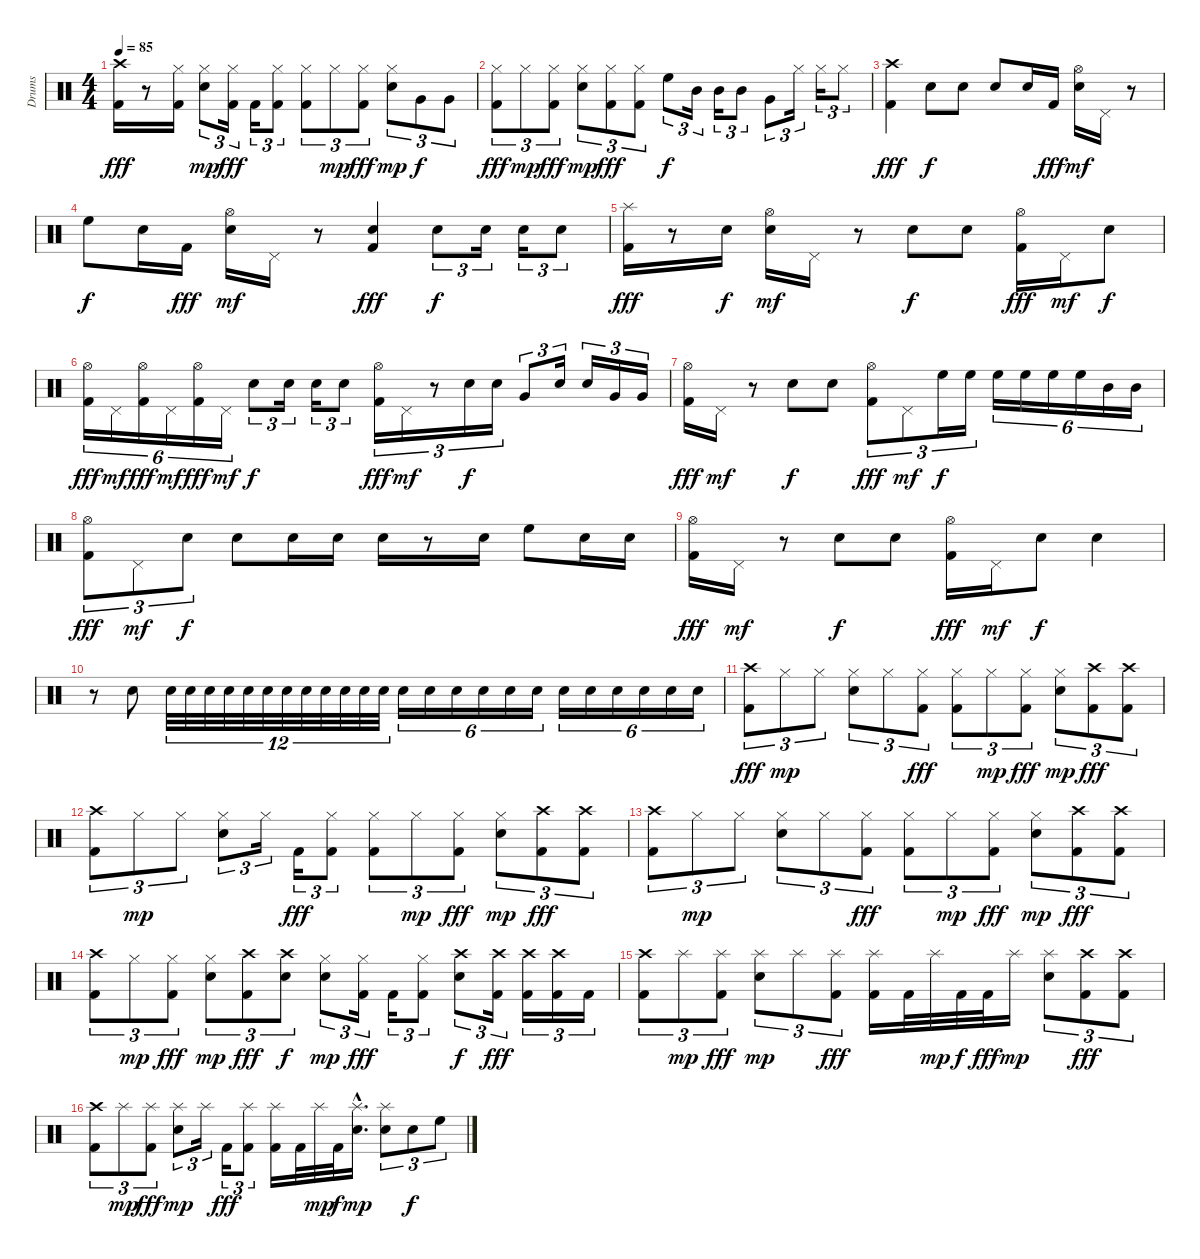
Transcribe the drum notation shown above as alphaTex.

\track ("Drums" "Drums") {instrument percussion}
\staff {score}
\articulation defaults
\ts (4 4)
\tempo 85
\clef neutral
\ks c
("Crash high (hit)" "Kick (hit) 2").16{dy fff} r.8 ("Hi-Hat (closed)" "Kick (hit) 2").16 ("Snare (hit) 2" "Hi-Hat (closed)").8{tu (3 2) dy mp} ("Hi-Hat (closed)" "Kick (hit) 2").16{tu (3 2) dy fff} "Kick (hit) 2".16{tu (3 2)} ("Hi-Hat (closed)" "Kick (hit) 2").8{tu (3 2)} ("Hi-Hat (closed)" "Kick (hit) 2").8{tu (3 2)} "Hi-Hat (closed)".8{tu (3 2) dy mp} ("Hi-Hat (closed)" "Kick (hit) 2").8{tu (3 2) dy fff} ("Snare (hit) 2" "Hi-Hat (closed)").8{tu (3 2) dy mp} "Very Low Tom (hit)".8{tu (3 2) dy f} "Very Low Tom (hit)".8{tu (3 2)} |
("Hi-Hat (closed)" "Kick (hit) 2").8{tu (3 2) dy fff} "Hi-Hat (closed)".8{tu (3 2) dy mp} ("Hi-Hat (closed)" "Kick (hit) 2").8{tu (3 2) dy fff} ("Snare (hit) 2" "Hi-Hat (closed)").8{tu (3 2) dy mp} ("Hi-Hat (closed)" "Kick (hit) 2").8{tu (3 2) dy fff} ("Hi-Hat (closed)" "Kick (hit) 2").8{tu (3 2)} "High Floor Tom (hit)".8{tu (3 2) dy f} "Mid Tom (hit)".16{tu (3 2)} "Mid Tom (hit)".16{tu (3 2)} "Mid Tom (hit)".8{tu (3 2)} "Very Low Tom (hit)".8{tu (3 2)} "Hi-Hat (closed)".16{tu (3 2)} "Hi-Hat (closed)".16{tu (3 2)} "Hi-Hat (closed)".8{tu (3 2)} |
("Crash high (hit)" "Kick (hit) 2").4{dy fff} "Snare (hit) 2".8{dy f} "Snare (hit) 2".8 "Snare (hit) 2".8 "Snare (hit) 2".16 "Kick (hit) 2".16{dy fff} ("Hi-Hat (open)" "Snare (hit) 2").16{dy mf} "Pedal Hi-Hat (hit)".16 r.8 |
"High Floor Tom (hit)".8{dy f} "Snare (hit) 2".16 "Kick (hit) 2".16{dy fff} ("Hi-Hat (open)" "Snare (hit) 2").16{dy mf} "Pedal Hi-Hat (hit)".16 r.8 ("Snare (hit) 2" "Kick (hit) 2").4{dy fff} "Snare (hit) 2".8{tu (3 2) dy f} "Snare (hit) 2".16{tu (3 2)} "Snare (hit) 2".16{tu (3 2)} "Snare (hit) 2".8{tu (3 2)} |
("Splash (hit)" "Kick (hit) 2").16{dy fff} r.8 "Snare (hit) 2".16{dy f} ("Hi-Hat (open)" "Snare (hit) 2").16{dy mf} "Pedal Hi-Hat (hit)".16 r.8 "Snare (hit) 2".8{dy f} "Snare (hit) 2".8 ("Hi-Hat (open)" "Kick (hit) 2").16{dy fff} "Pedal Hi-Hat (hit)".16{dy mf} "Snare (hit) 2".8{dy f} |
("Hi-Hat (open)" "Kick (hit) 2").16{tu (6 4) dy fff} "Pedal Hi-Hat (hit)".16{tu (6 4) dy mf} ("Hi-Hat (open)" "Kick (hit) 2").16{tu (6 4) dy fff} "Pedal Hi-Hat (hit)".16{tu (6 4) dy mf} ("Hi-Hat (open)" "Kick (hit) 2").16{tu (6 4) dy fff} "Pedal Hi-Hat (hit)".16{tu (6 4) dy mf} "Snare (hit) 2".8{tu (3 2) dy f} "Snare (hit) 2".16{tu (3 2)} "Snare (hit) 2".16{tu (3 2)} "Snare (hit) 2".8{tu (3 2)} ("Hi-Hat (open)" "Kick (hit) 2").16{tu (3 2) dy fff} "Pedal Hi-Hat (hit)".16{tu (3 2) dy mf} r.8{tu (3 2)} "Snare (hit) 2".16{tu (3 2) dy f} "Snare (hit) 2".16{tu (3 2)} "Very Low Tom (hit)".8{tu (3 2)} "Snare (hit) 2".16{tu (3 2)} "Snare (hit) 2".16{tu (3 2)} "Very Low Tom (hit)".16{tu (3 2)} "Very Low Tom (hit)".16{tu (3 2)} |
("Hi-Hat (open)" "Kick (hit) 2").16{dy fff} "Pedal Hi-Hat (hit)".16{dy mf} r.8 "Snare (hit) 2".8{dy f} "Snare (hit) 2".8 ("Hi-Hat (open)" "Kick (hit) 2").8{tu (3 2) dy fff} "Pedal Hi-Hat (hit)".8{tu (3 2) dy mf} "High Floor Tom (hit)".16{tu (3 2) dy f} "High Floor Tom (hit)".16{tu (3 2)} "High Floor Tom (hit)".16{tu (6 4)} "High Floor Tom (hit)".16{tu (6 4)} "High Floor Tom (hit)".16{tu (6 4)} "High Floor Tom (hit)".16{tu (6 4)} "Mid Tom (hit)".16{tu (6 4)} "Mid Tom (hit)".16{tu (6 4)} |
("Hi-Hat (open)" "Kick (hit) 2").8{tu (3 2) dy fff} "Pedal Hi-Hat (hit)".8{tu (3 2) dy mf} "Snare (hit) 2".8{tu (3 2) dy f} "Snare (hit) 2".8 "Snare (hit) 2".16 "Snare (hit) 2".16 "Snare (hit) 2".16 r.8 "Snare (hit) 2".16 "High Floor Tom (hit)".8 "Snare (hit) 2".16 "Snare (hit) 2".16 |
("Hi-Hat (open)" "Kick (hit) 2").16{dy fff} "Pedal Hi-Hat (hit)".16{dy mf} r.8 "Snare (hit) 2".8{dy f} "Snare (hit) 2".8 ("Hi-Hat (open)" "Kick (hit) 2").16{dy fff} "Pedal Hi-Hat (hit)".16{dy mf} "Snare (hit) 2".8{dy f} "Snare (hit) 2".4 |
r.8 "Snare (hit) 2".8 "Snare (hit) 2".32{tu (12 8)} "Snare (hit) 2".32{tu (12 8)} "Snare (hit) 2".32{tu (12 8)} "Snare (hit) 2".32{tu (12 8)} "Snare (hit) 2".32{tu (12 8)} "Snare (hit) 2".32{tu (12 8)} "Snare (hit) 2".32{tu (12 8)} "Snare (hit) 2".32{tu (12 8)} "Snare (hit) 2".32{tu (12 8)} "Snare (hit) 2".32{tu (12 8)} "Snare (hit) 2".32{tu (12 8)} "Snare (hit) 2".32{tu (12 8)} "Snare (hit) 2".16{tu (6 4)} "Snare (hit) 2".16{tu (6 4)} "Snare (hit) 2".16{tu (6 4)} "Snare (hit) 2".16{tu (6 4)} "Snare (hit) 2".16{tu (6 4)} "Snare (hit) 2".16{tu (6 4)} "Snare (hit) 2".16{tu (6 4)} "Snare (hit) 2".16{tu (6 4)} "Snare (hit) 2".16{tu (6 4)} "Snare (hit) 2".16{tu (6 4)} "Snare (hit) 2".16{tu (6 4)} "Snare (hit) 2".16{tu (6 4)} |
("Crash high (hit)" "Kick (hit) 2").8{tu (3 2) dy fff} "Hi-Hat (closed)".8{tu (3 2) dy mp} "Hi-Hat (closed)".8{tu (3 2)} ("Snare (hit) 2" "Hi-Hat (closed)").8{tu (3 2)} "Hi-Hat (closed)".8{tu (3 2)} ("Hi-Hat (closed)" "Kick (hit) 2").8{tu (3 2) dy fff} ("Hi-Hat (closed)" "Kick (hit) 2").8{tu (3 2)} "Hi-Hat (closed)".8{tu (3 2) dy mp} ("Hi-Hat (closed)" "Kick (hit) 2").8{tu (3 2) dy fff} ("Snare (hit) 2" "Hi-Hat (closed)").8{tu (3 2) dy mp} ("Crash high (hit)" "Kick (hit) 2").8{tu (3 2) dy fff} ("Crash high (hit)" "Kick (hit) 2").8{tu (3 2)} |
("Crash high (hit)" "Kick (hit) 2").8{tu (3 2)} "Hi-Hat (closed)".8{tu (3 2) dy mp} "Hi-Hat (closed)".8{tu (3 2)} ("Snare (hit) 2" "Hi-Hat (closed)").8{tu (3 2)} "Hi-Hat (closed)".16{tu (3 2)} "Kick (hit) 2".16{tu (3 2) dy fff} ("Hi-Hat (closed)" "Kick (hit) 2").8{tu (3 2)} ("Hi-Hat (closed)" "Kick (hit) 2").8{tu (3 2)} "Hi-Hat (closed)".8{tu (3 2) dy mp} ("Hi-Hat (closed)" "Kick (hit) 2").8{tu (3 2) dy fff} ("Snare (hit) 2" "Hi-Hat (closed)").8{tu (3 2) dy mp} ("Crash high (hit)" "Kick (hit) 2").8{tu (3 2) dy fff} ("Crash high (hit)" "Kick (hit) 2").8{tu (3 2)} |
("Crash high (hit)" "Kick (hit) 2").8{tu (3 2)} "Hi-Hat (closed)".8{tu (3 2) dy mp} "Hi-Hat (closed)".8{tu (3 2)} ("Snare (hit) 2" "Hi-Hat (closed)").8{tu (3 2)} "Hi-Hat (closed)".8{tu (3 2)} ("Hi-Hat (closed)" "Kick (hit) 2").8{tu (3 2) dy fff} ("Hi-Hat (closed)" "Kick (hit) 2").8{tu (3 2)} "Hi-Hat (closed)".8{tu (3 2) dy mp} ("Hi-Hat (closed)" "Kick (hit) 2").8{tu (3 2) dy fff} ("Snare (hit) 2" "Hi-Hat (closed)").8{tu (3 2) dy mp} ("Crash high (hit)" "Kick (hit) 2").8{tu (3 2) dy fff} ("Crash high (hit)" "Kick (hit) 2").8{tu (3 2)} |
("Crash high (hit)" "Kick (hit) 2").8{tu (3 2)} "Hi-Hat (closed)".8{tu (3 2) dy mp} ("Hi-Hat (closed)" "Kick (hit) 2").8{tu (3 2) dy fff} ("Hi-Hat (closed)" "Snare (hit) 2").8{tu (3 2) dy mp} ("Crash high (hit)" "Kick (hit) 2").8{tu (3 2) dy fff} ("Crash high (hit)" "Snare (hit) 2").8{tu (3 2) dy f} ("Snare (hit) 2" "Hi-Hat (closed)").8{tu (3 2) dy mp} ("Hi-Hat (closed)" "Kick (hit) 2").16{tu (3 2) dy fff} "Kick (hit) 2".16{tu (3 2)} ("Hi-Hat (closed)" "Kick (hit) 2").8{tu (3 2)} ("Crash high (hit)" "Snare (hit) 2").8{tu (3 2) dy f} ("Crash high (hit)" "Kick (hit) 2").16{tu (3 2) dy fff} ("Crash high (hit)" "Kick (hit) 2").16{tu (3 2)} ("Crash high (hit)" "Kick (hit) 2").16{tu (3 2)} "Kick (hit) 2".16{tu (3 2)} |
("Crash high (hit)" "Kick (hit) 2").8{tu (3 2)} "Splash (hit)".8{tu (3 2) dy mp} ("Splash (hit)" "Kick (hit) 2").8{tu (3 2) dy fff} ("Snare (hit) 2" "Splash (hit)").8{tu (3 2) dy mp} "Splash (hit)".8{tu (3 2)} ("Splash (hit)" "Kick (hit) 2").8{tu (3 2) dy fff} ("Splash (hit)" "Kick (hit) 2").16 "Kick (hit) 2".32 "Splash (hit)".32{dy mp} "Kick (hit) 2".32{dy f} "Kick (hit) 2".32{dy fff} "Splash (hit)".16{dy mp} ("Snare (hit) 2" "Splash (hit)").8{tu (3 2)} ("Crash high (hit)" "Kick (hit) 2").8{tu (3 2) dy fff} ("Crash high (hit)" "Kick (hit) 2").8{tu (3 2)} |
("Crash high (hit)" "Kick (hit) 2").8{tu (3 2)} "Splash (hit)".8{tu (3 2) dy mp} ("Splash (hit)" "Kick (hit) 2").8{tu (3 2) dy fff} ("Snare (hit) 2" "Splash (hit)").8{tu (3 2) dy mp} "Splash (hit)".16{tu (3 2)} "Kick (hit) 2".16{tu (3 2) dy fff} ("Splash (hit)" "Kick (hit) 2").8{tu (3 2)} ("Splash (hit)" "Kick (hit) 2").16 "Kick (hit) 2".32 "Splash (hit)".32{dy mp} "Kick (hit) 2".32{dy f} ("Snare (hit) 2"{hac} "Splash (hit)"{hac}).16{d dy mp} ("Splash (hit)" "Snare (hit) 2").8{tu (3 2)} "Snare (hit) 2".8{tu (3 2) dy f} "High Floor Tom (hit)".8{tu (3 2)}
